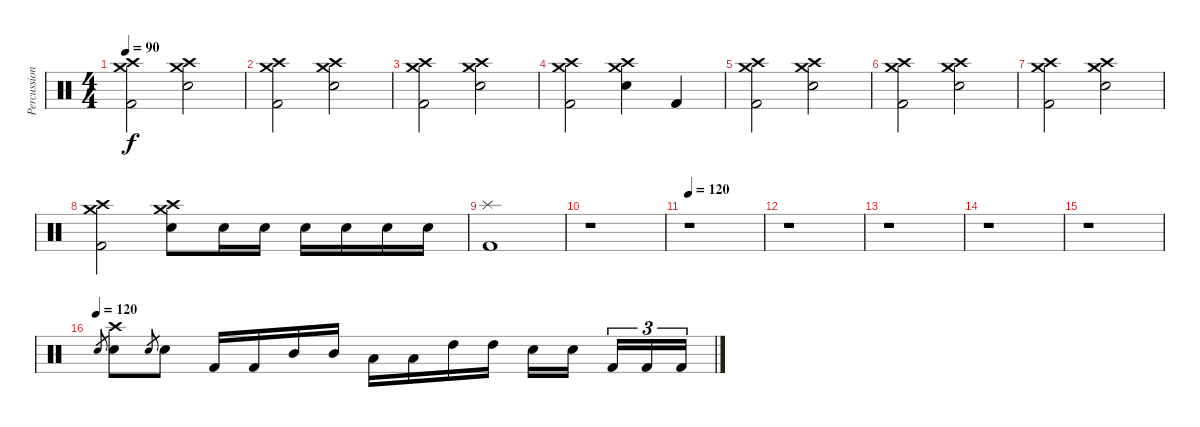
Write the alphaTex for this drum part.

\track ("Percussion" "Percussion") {instrument percussion}
\staff {score}
\articulation defaults
\ts (4 4)
\tempo 90
\clef neutral
\ks c
("Crash high (hit)" "Crash medium (hit)" "Kick (hit) 2").2{dy f} ("Crash high (hit)" "Crash medium (hit)" "Electric Snare (hit)").2 |
("Crash high (hit)" "Crash medium (hit)" "Kick (hit) 2").2 ("Crash high (hit)" "Crash medium (hit)" "Electric Snare (hit)").2 |
("Crash high (hit)" "Crash medium (hit)" "Kick (hit) 2").2 ("Crash high (hit)" "Crash medium (hit)" "Electric Snare (hit)").2 |
("Crash high (hit)" "Crash medium (hit)" "Kick (hit) 2").2 ("Crash high (hit)" "Crash medium (hit)" "Electric Snare (hit)").4 "Kick (hit) 2".4 |
("Crash high (hit)" "Crash medium (hit)" "Kick (hit) 2").2 ("Crash high (hit)" "Crash medium (hit)" "Electric Snare (hit)").2 |
("Crash high (hit)" "Crash medium (hit)" "Kick (hit) 2").2 ("Crash high (hit)" "Crash medium (hit)" "Electric Snare (hit)").2 |
("Crash high (hit)" "Crash medium (hit)" "Kick (hit) 2").2 ("Crash high (hit)" "Crash medium (hit)" "Electric Snare (hit)").2 |
("Crash high (hit)" "Crash medium (hit)" "Kick (hit) 2").2 ("Crash high (hit)" "Crash medium (hit)" "Electric Snare (hit)").8 "Electric Snare (hit)".16 "Electric Snare (hit)".16 "Electric Snare (hit)".16 "Electric Snare (hit)".16 "Electric Snare (hit)".16 "Electric Snare (hit)".16 |
("Splash (hit)" "Kick (hit) 2").1 |
r.1 |
\tempo 120
r.1 |
r.1 |
r.1 |
r.1 |
r.1 |
\tempo (120)
"Electric Snare (hit)".8{gr} ("Crash high (hit)" "Electric Snare (hit)").8 "Electric Snare (hit)".8{gr} "Electric Snare (hit)".8 "Kick (hit) 2".16 "Kick (hit) 2".16 "Mid Tom (hit)".16 "Mid Tom (hit)".16 "Low Tom (hit)".16 "Low Tom (hit)".16 "High Tom (hit)".16 "High Tom (hit)".16 "Electric Snare (hit)".16 "Electric Snare (hit)".16 "Kick (hit) 2".16{tu (3 2)} "Kick (hit) 2".16{tu (3 2)} "Kick (hit) 2".16{tu (3 2)}
